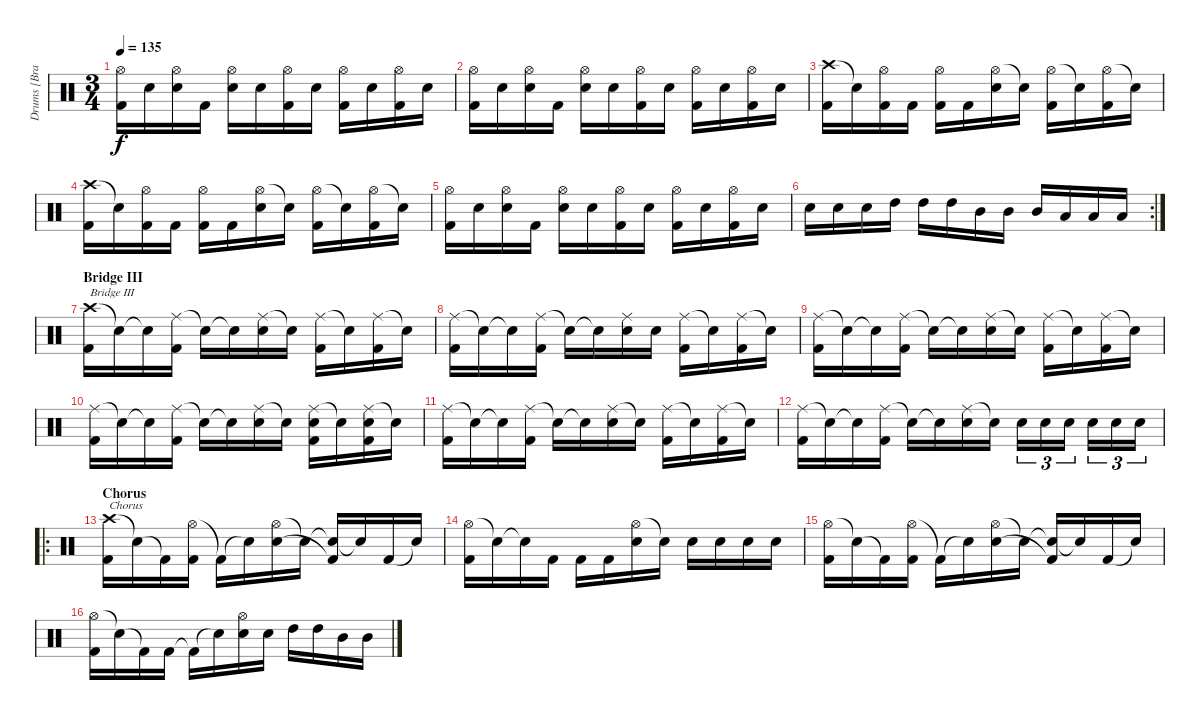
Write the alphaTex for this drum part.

\track ("Drums [Brann Dailor]" "Drums [Bra") {instrument percussion}
\staff {score}
\articulation defaults
\ts (3 4)
\tempo 135
\clef neutral
\ks c
("Hi-Hat (open)" "Kick (hit) 2").16{dy f} "Electric Snare (hit)".16 ("Hi-Hat (open)" "Electric Snare (hit)").16 "Kick (hit) 2".16 ("Hi-Hat (open)" "Electric Snare (hit)").16 "Electric Snare (hit)".16 ("Hi-Hat (open)" "Kick (hit) 2").16 "Electric Snare (hit)".16 ("Hi-Hat (open)" "Kick (hit) 2").16 "Electric Snare (hit)".16 ("Hi-Hat (open)" "Kick (hit) 2").16 "Electric Snare (hit)".16 |
("Hi-Hat (open)" "Kick (hit) 2").16 "Electric Snare (hit)".16 ("Hi-Hat (open)" "Electric Snare (hit)").16 "Kick (hit) 2".16 ("Hi-Hat (open)" "Electric Snare (hit)").16 "Electric Snare (hit)".16 ("Hi-Hat (open)" "Kick (hit) 2").16 "Electric Snare (hit)".16 ("Hi-Hat (open)" "Kick (hit) 2").16 "Electric Snare (hit)".16 ("Hi-Hat (open)" "Kick (hit) 2").16 "Electric Snare (hit)".16 |
("Crash high (hit)" "Kick (hit) 2").16 "Snare (hit)"{t}.16 ("Hi-Hat (open)" "Kick (hit) 2").16 "Kick (hit) 2".16 ("Hi-Hat (open)" "Kick (hit) 2").16 "Kick (hit) 2".16 ("Hi-Hat (open)" "Electric Snare (hit)").16 "Snare (hit)"{t}.16 ("Hi-Hat (open)" "Kick (hit) 2").16 "Snare (hit)"{t}.16 ("Hi-Hat (open)" "Kick (hit) 2").16 "Snare (hit)"{t}.16 |
("Crash high (hit)" "Kick (hit) 2").16 "Snare (hit)"{t}.16 ("Hi-Hat (open)" "Kick (hit) 2").16 "Kick (hit) 2".16 ("Hi-Hat (open)" "Kick (hit) 2").16 "Kick (hit) 2".16 ("Hi-Hat (open)" "Electric Snare (hit)").16 "Snare (hit)"{t}.16 ("Hi-Hat (open)" "Kick (hit) 2").16 "Snare (hit)"{t}.16 ("Hi-Hat (open)" "Kick (hit) 2").16 "Snare (hit)"{t}.16 |
("Hi-Hat (open)" "Kick (hit) 2").16 "Electric Snare (hit)".16 ("Hi-Hat (open)" "Electric Snare (hit)").16 "Kick (hit) 2".16 ("Hi-Hat (open)" "Electric Snare (hit)").16 "Electric Snare (hit)".16 ("Hi-Hat (open)" "Kick (hit) 2").16 "Electric Snare (hit)".16 ("Hi-Hat (open)" "Kick (hit) 2").16 "Electric Snare (hit)".16 ("Hi-Hat (open)" "Kick (hit) 2").16 "Electric Snare (hit)".16 |
\rc 2 "Electric Snare (hit)".16 "Electric Snare (hit)".16 "Electric Snare (hit)".16 "High Tom (hit)".16 "High Tom (hit)".16 "High Tom (hit)".16 "Mid Tom (hit)".16 "Mid Tom (hit)".16 "Mid Tom (hit)".16 "Low Tom (hit)".16 "Low Tom (hit)".16 "Low Tom (hit)".16
|
\section ("" "Bridge III")
("Crash high (hit)" "Kick (hit) 2").16{txt "Bridge III"} "Snare (hit)"{t}.16 "Snare (hit)"{t}.16 ("Ride (middle)" "Kick (hit) 2").16 "Snare (hit)"{t}.16 "Snare (hit)"{t}.16 ("Ride (middle)" "Electric Snare (hit)").16 "Snare (hit)"{t}.16 ("Ride (middle)" "Kick (hit) 2").16 "Snare (hit)"{t}.16 ("Ride (middle)" "Kick (hit) 2").16 "Snare (hit)"{t}.16 |
("Ride (middle)" "Kick (hit) 2").16 "Snare (hit)"{t}.16 "Snare (hit)"{t}.16 ("Ride (middle)" "Kick (hit) 2").16 "Snare (hit)"{t}.16 "Snare (hit)"{t}.16 ("Ride (middle)" "Electric Snare (hit)").16 "Electric Snare (hit)".16 ("Ride (middle)" "Kick (hit) 2").16 "Snare (hit)"{t}.16 ("Ride (middle)" "Kick (hit) 2").16 "Snare (hit)"{t}.16 |
("Ride (middle)" "Kick (hit) 2").16 "Snare (hit)"{t}.16 "Snare (hit)"{t}.16 ("Ride (middle)" "Kick (hit) 2").16 "Snare (hit)"{t}.16 "Snare (hit)"{t}.16 ("Ride (middle)" "Electric Snare (hit)").16 "Snare (hit)"{t}.16 ("Ride (middle)" "Kick (hit) 2").16 "Snare (hit)"{t}.16 ("Ride (middle)" "Kick (hit) 2").16 "Snare (hit)"{t}.16 |
("Ride (middle)" "Kick (hit) 2").16 "Snare (hit)"{t}.16 "Snare (hit)"{t}.16 ("Ride (middle)" "Kick (hit) 2").16 "Snare (hit)"{t}.16 "Snare (hit)"{t}.16 ("Ride (middle)" "Electric Snare (hit)").16 "Snare (hit)"{t}.16 ("Ride (middle)" "Electric Snare (hit)" "Kick (hit) 2").16 "Snare (hit)"{t}.16 ("Ride (middle)" "Electric Snare (hit)" "Kick (hit) 2").16 "Snare (hit)"{t}.16 |
("Ride (middle)" "Kick (hit) 2").16 "Snare (hit)"{t}.16 "Snare (hit)"{t}.16 ("Ride (middle)" "Kick (hit) 2").16 "Snare (hit)"{t}.16 "Snare (hit)"{t}.16 ("Ride (middle)" "Electric Snare (hit)").16 "Snare (hit)"{t}.16 ("Ride (middle)" "Kick (hit) 2").16 "Snare (hit)"{t}.16 ("Ride (middle)" "Kick (hit) 2").16 "Snare (hit)"{t}.16 |
("Ride (middle)" "Kick (hit) 2").16 "Snare (hit)"{t}.16 "Snare (hit)"{t}.16 ("Ride (middle)" "Kick (hit) 2").16 "Snare (hit)"{t}.16 "Snare (hit)"{t}.16 ("Ride (middle)" "Electric Snare (hit)").16 "Snare (hit)"{t}.16 "Electric Snare (hit)".16{tu (3 2)} "Electric Snare (hit)".16{tu (3 2)} "Electric Snare (hit)".16{tu (3 2)} "Electric Snare (hit)".16{tu (3 2)} "Electric Snare (hit)".16{tu (3 2)} "Electric Snare (hit)".16{tu (3 2)} |
\ro
\section ("" "Chorus")
("Crash high (hit)" "Kick (hit) 2").16{txt "Chorus"} "Snare (hit)"{t}.16 "Kick (hit) 2"{t}.16 ("Hi-Hat (open)" "Kick (hit) 2").16 "Kick (hit) 2"{t}.16 "Snare (hit)"{t}.16 ("Hi-Hat (open)" "Electric Snare (hit)").16 "Snare (hit)"{t}.16 ("Snare (hit)"{t} "Kick (hit) 2"{t}).16 "Snare (hit)"{t}.16 "Kick (hit) 2".16 "Snare (hit)"{t}.16 |
("Hi-Hat (open)" "Kick (hit) 2").16 "Snare (hit)"{t}.16 "Snare (hit)"{t}.16 "Kick (hit) 2".16 "Kick (hit) 2".16 "Kick (hit) 2".16 ("Hi-Hat (open)" "Electric Snare (hit)").16 "Snare (hit)"{t}.16 "Electric Snare (hit)".16 "Electric Snare (hit)".16 "Electric Snare (hit)".16 "Electric Snare (hit)".16 |
("Hi-Hat (open)" "Kick (hit) 2").16 "Snare (hit)"{t}.16 "Kick (hit) 2"{t}.16 ("Hi-Hat (open)" "Kick (hit) 2").16 "Kick (hit) 2"{t}.16 "Snare (hit)"{t}.16 ("Hi-Hat (open)" "Electric Snare (hit)").16 "Snare (hit)"{t}.16 ("Snare (hit)"{t} "Kick (hit) 2"{t}).16 "Snare (hit)"{t}.16 "Kick (hit) 2".16 "Snare (hit)"{t}.16 |
("Hi-Hat (open)" "Kick (hit) 2").16 "Snare (hit)"{t}.16 "Kick (hit) 2"{t}.16 "Kick (hit) 2".16 "Kick (hit) 2"{t}.16 "Snare (hit)"{t}.16 ("Hi-Hat (open)" "Electric Snare (hit)").16 "Electric Snare (hit)".16 "High Tom (hit)".16 "High Tom (hit)".16 "Mid Tom (hit)".16 "Mid Tom (hit)".16
